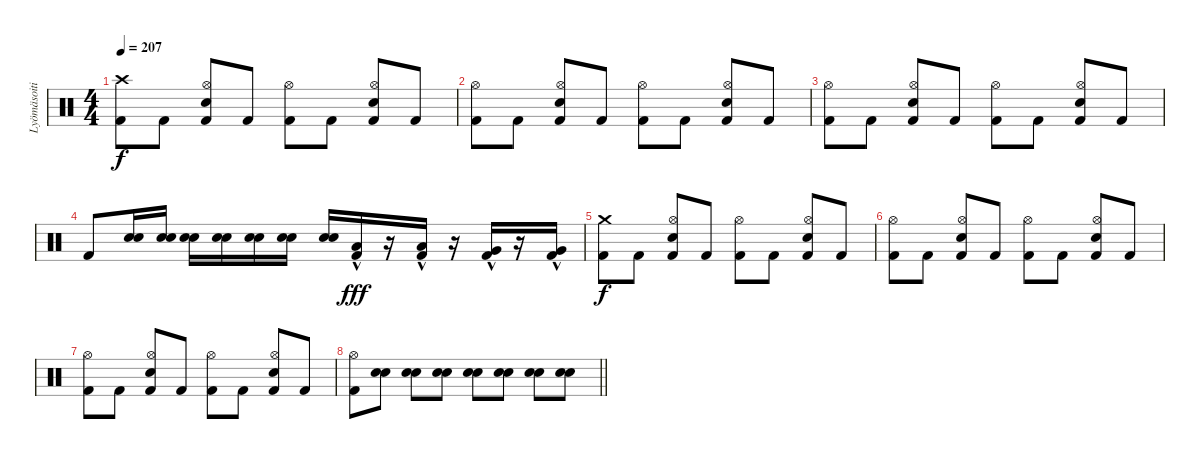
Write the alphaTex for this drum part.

\track ("Lyömäsoitin" "Lyömäsoiti") {instrument percussion}
\staff {score}
\articulation defaults
\ts (4 4)
\tempo 207
\clef neutral
\ks c
("Crash high (hit)" "Kick (hit) 2").8{dy f} "Kick (hit) 2".8 ("Hi-Hat (open)" "Snare (hit) 2" "Kick (hit) 2").8 "Kick (hit) 2".8 ("Hi-Hat (open)" "Kick (hit) 2").8 "Kick (hit) 2".8 ("Hi-Hat (open)" "Snare (hit) 2" "Kick (hit) 2").8 "Kick (hit) 2".8 |
("Hi-Hat (open)" "Kick (hit) 2").8 "Kick (hit) 2".8 ("Hi-Hat (open)" "Snare (hit) 2" "Kick (hit) 2").8 "Kick (hit) 2".8 ("Hi-Hat (open)" "Kick (hit) 2").8 "Kick (hit) 2".8 ("Hi-Hat (open)" "Snare (hit) 2" "Kick (hit) 2").8 "Kick (hit) 2".8 |
("Hi-Hat (open)" "Kick (hit) 2").8 "Kick (hit) 2".8 ("Hi-Hat (open)" "Snare (hit) 2" "Kick (hit) 2").8 "Kick (hit) 2".8 ("Hi-Hat (open)" "Kick (hit) 2").8 "Kick (hit) 2".8 ("Hi-Hat (open)" "Snare (hit) 2" "Kick (hit) 2").8 "Kick (hit) 2".8 |
"Kick (hit) 2".8 ("Electric Snare (hit)" "Snare (hit) 2").16 ("Electric Snare (hit)" "Snare (hit) 2").16 ("Electric Snare (hit)" "Snare (hit) 2").16 ("Electric Snare (hit)" "Snare (hit) 2").16 ("Electric Snare (hit)" "Snare (hit) 2").16 ("Electric Snare (hit)" "Snare (hit) 2").16 ("Electric Snare (hit)" "Snare (hit) 2").16 ("Low Floor Tom (hit)"{hac} "Kick (hit) 2").16{dy fff} r.16 ("Low Floor Tom (hit)"{hac} "Kick (hit) 2").16 r.16 ("Very Low Tom (hit)"{hac} "Kick (hit) 2").16 r.16 ("Very Low Tom (hit)"{hac} "Kick (hit) 2").16 |
("Crash medium (hit)" "Kick (hit) 2").8{dy f} "Kick (hit) 2".8 ("Hi-Hat (open)" "Snare (hit) 2" "Kick (hit) 2").8 "Kick (hit) 2".8 ("Hi-Hat (open)" "Kick (hit) 2").8 "Kick (hit) 2".8 ("Hi-Hat (open)" "Snare (hit) 2" "Kick (hit) 2").8 "Kick (hit) 2".8 |
("Hi-Hat (open)" "Kick (hit) 2").8 "Kick (hit) 2".8 ("Hi-Hat (open)" "Snare (hit) 2" "Kick (hit) 2").8 "Kick (hit) 2".8 ("Hi-Hat (open)" "Kick (hit) 2").8 "Kick (hit) 2".8 ("Hi-Hat (open)" "Snare (hit) 2" "Kick (hit) 2").8 "Kick (hit) 2".8 |
("Hi-Hat (open)" "Kick (hit) 2").8 "Kick (hit) 2".8 ("Hi-Hat (open)" "Snare (hit) 2" "Kick (hit) 2").8 "Kick (hit) 2".8 ("Hi-Hat (open)" "Kick (hit) 2").8 "Kick (hit) 2".8 ("Hi-Hat (open)" "Snare (hit) 2" "Kick (hit) 2").8 "Kick (hit) 2".8 |
\barLineRight lightlight
("Hi-Hat (open)" "Kick (hit) 2").8 ("Electric Snare (hit)" "Snare (hit) 2").8 ("Electric Snare (hit)" "Snare (hit) 2").8 ("Electric Snare (hit)" "Snare (hit) 2").8 ("Electric Snare (hit)" "Snare (hit) 2").8 ("Electric Snare (hit)" "Snare (hit) 2").8 ("Electric Snare (hit)" "Snare (hit) 2").8 ("Electric Snare (hit)" "Snare (hit) 2").8
